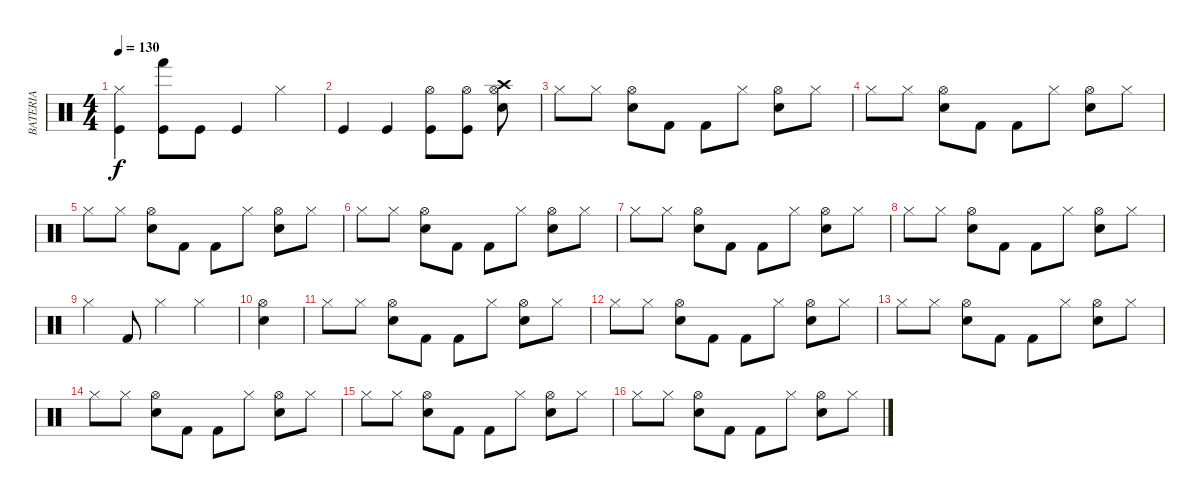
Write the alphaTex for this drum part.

\track ("BATERIA" "BATERIA") {mute instrument percussion}
\staff {score}
\articulation defaults
\ts (4 4)
\tempo 130
\clef neutral
\ks c
("Hi-Hat (closed)" "Kick (hit)").4{dy f} ("Kick (hit)" "Hand (hit)").8 "Kick (hit)".8 "Kick (hit)".4 "Hi-Hat (closed)".4 |
"Kick (hit)".4 "Kick (hit)".4 ("Kick (hit)" "Hi-Hat (open)").8 ("Kick (hit)" "Hi-Hat (open)").8 ("Snare (hit) 2" "Hi-Hat (open)" "Crash high (hit)").8 |
"Hi-Hat (closed)".8 "Hi-Hat (closed)".8 ("Snare (hit) 2" "Hi-Hat (open)").8 "Kick (hit) 2".8 "Kick (hit) 2".8 "Hi-Hat (closed)".8 ("Snare (hit) 2" "Hi-Hat (open)").8 "Hi-Hat (closed)".8 |
"Hi-Hat (closed)".8 "Hi-Hat (closed)".8 ("Snare (hit) 2" "Hi-Hat (open)").8 "Kick (hit) 2".8 "Kick (hit) 2".8 "Hi-Hat (closed)".8 ("Snare (hit) 2" "Hi-Hat (open)").8 "Hi-Hat (closed)".8 |
"Hi-Hat (closed)".8 "Hi-Hat (closed)".8 ("Snare (hit) 2" "Hi-Hat (open)").8 "Kick (hit) 2".8 "Kick (hit) 2".8 "Hi-Hat (closed)".8 ("Snare (hit) 2" "Hi-Hat (open)").8 "Hi-Hat (closed)".8 |
"Hi-Hat (closed)".8 "Hi-Hat (closed)".8 ("Snare (hit) 2" "Hi-Hat (open)").8 "Kick (hit) 2".8 "Kick (hit) 2".8 "Hi-Hat (closed)".8 ("Snare (hit) 2" "Hi-Hat (open)").8 "Hi-Hat (closed)".8 |
"Hi-Hat (closed)".8 "Hi-Hat (closed)".8 ("Snare (hit) 2" "Hi-Hat (open)").8 "Kick (hit) 2".8 "Kick (hit) 2".8 "Hi-Hat (closed)".8 ("Snare (hit) 2" "Hi-Hat (open)").8 "Hi-Hat (closed)".8 |
"Hi-Hat (closed)".8 "Hi-Hat (closed)".8 ("Snare (hit) 2" "Hi-Hat (open)").8 "Kick (hit) 2".8 "Kick (hit) 2".8 "Hi-Hat (closed)".8 ("Snare (hit) 2" "Hi-Hat (open)").8 "Hi-Hat (closed)".8 |
"Hi-Hat (closed)".4 "Kick (hit) 2".8 "Hi-Hat (closed)".4 "Hi-Hat (closed)".4 |
("Snare (hit) 2" "Hi-Hat (open)").4 |
"Hi-Hat (closed)".8 "Hi-Hat (closed)".8 ("Snare (hit) 2" "Hi-Hat (open)").8 "Kick (hit) 2".8 "Kick (hit) 2".8 "Hi-Hat (closed)".8 ("Snare (hit) 2" "Hi-Hat (open)").8 "Hi-Hat (closed)".8 |
"Hi-Hat (closed)".8 "Hi-Hat (closed)".8 ("Snare (hit) 2" "Hi-Hat (open)").8 "Kick (hit) 2".8 "Kick (hit) 2".8 "Hi-Hat (closed)".8 ("Snare (hit) 2" "Hi-Hat (open)").8 "Hi-Hat (closed)".8 |
"Hi-Hat (closed)".8 "Hi-Hat (closed)".8 ("Snare (hit) 2" "Hi-Hat (open)").8 "Kick (hit) 2".8 "Kick (hit) 2".8 "Hi-Hat (closed)".8 ("Snare (hit) 2" "Hi-Hat (open)").8 "Hi-Hat (closed)".8 |
"Hi-Hat (closed)".8 "Hi-Hat (closed)".8 ("Snare (hit) 2" "Hi-Hat (open)").8 "Kick (hit) 2".8 "Kick (hit) 2".8 "Hi-Hat (closed)".8 ("Snare (hit) 2" "Hi-Hat (open)").8 "Hi-Hat (closed)".8 |
"Hi-Hat (closed)".8 "Hi-Hat (closed)".8 ("Snare (hit) 2" "Hi-Hat (open)").8 "Kick (hit) 2".8 "Kick (hit) 2".8 "Hi-Hat (closed)".8 ("Snare (hit) 2" "Hi-Hat (open)").8 "Hi-Hat (closed)".8 |
"Hi-Hat (closed)".8 "Hi-Hat (closed)".8 ("Snare (hit) 2" "Hi-Hat (open)").8 "Kick (hit) 2".8 "Kick (hit) 2".8 "Hi-Hat (closed)".8 ("Snare (hit) 2" "Hi-Hat (open)").8 "Hi-Hat (closed)".8
